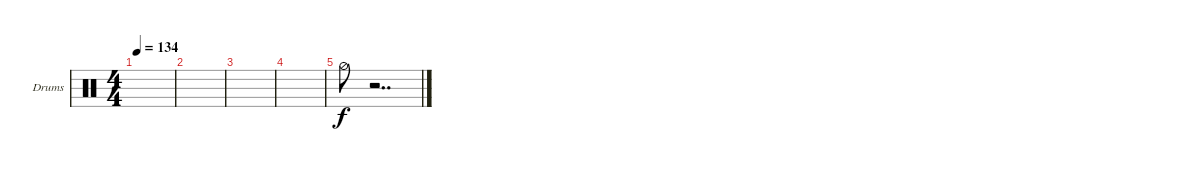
\defaultSystemsLayout 4
\bracketExtendMode groupsimilarinstruments
\firstSystemTrackNameOrientation horizontal
\otherSystemsTrackNameOrientation horizontal
\track ("Drumkit" "Drums") {instrument percussion}
\staff {score}
\articulation defaults
\ts (4 4)
\tempo 134
\clef neutral
\ks c
|
|
|
|
"Hi-Hat (half)".8 r.2{dd}
